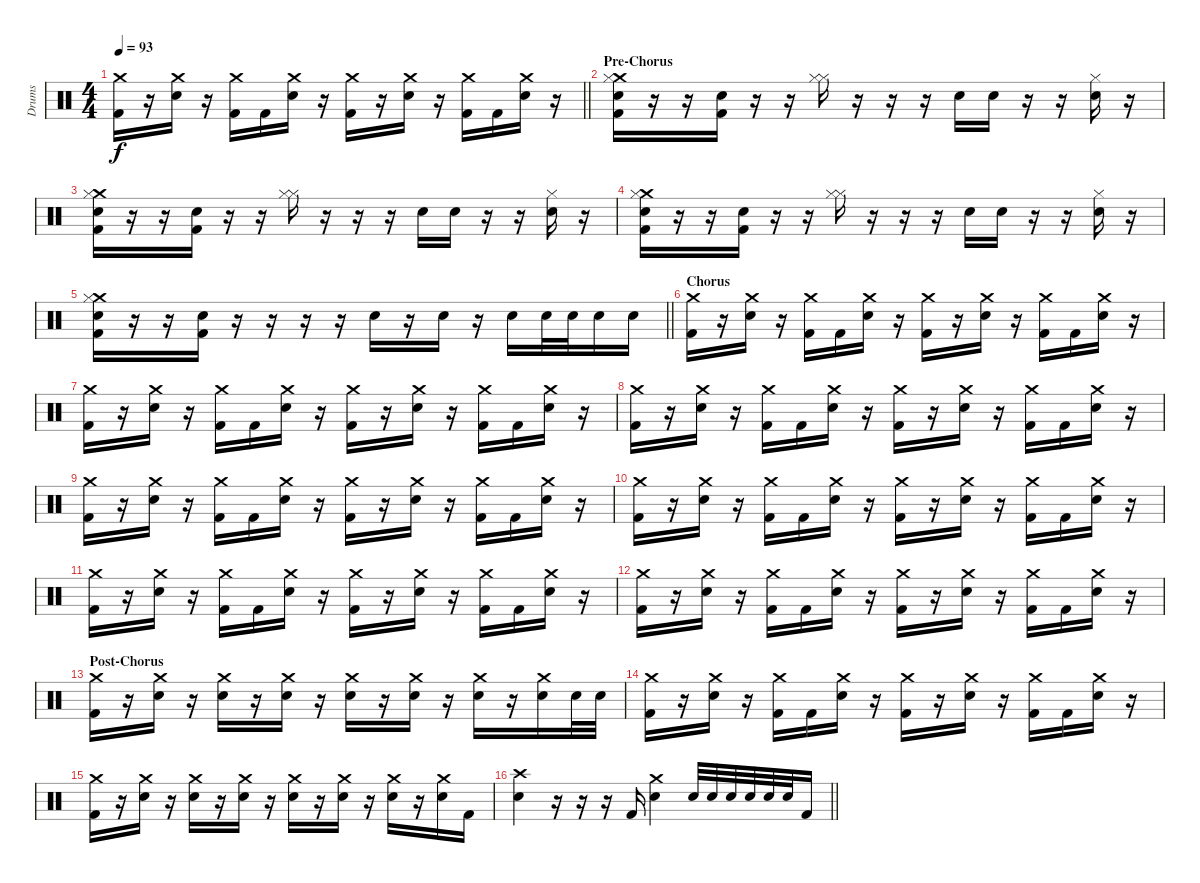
\track ("Drums" "Drums") {instrument percussion}
\staff {score}
\articulation defaults
\ts (4 4)
\tempo 93
\clef neutral
\barLineRight lightlight
\ks c
("Crash medium (hit)" "Kick (hit) 2").16{dy f} r.16 ("Crash medium (hit)" "Electric Snare (hit)").16 r.16 ("Crash medium (hit)" "Kick (hit) 2").16 "Kick (hit) 2".16 ("Crash medium (hit)" "Electric Snare (hit)").16 r.16 ("Crash medium (hit)" "Kick (hit) 2").16 r.16 ("Crash medium (hit)" "Electric Snare (hit)").16 r.16 ("Crash medium (hit)" "Kick (hit) 2").16 "Kick (hit) 2".16 ("Crash medium (hit)" "Electric Snare (hit)").16 r.16 |
\section ("" "Pre-Chorus")
("Crash medium (hit)" "Hi-Hat (closed)" "Electric Snare (hit)" "Kick (hit) 2").16 r.16 r.16 ("Electric Snare (hit)" "Kick (hit) 2").16 r.16 r.16 ("Hi-Hat (closed)" "Hi-Hat (closed)").16 r.16 r.16 r.16 "Hand Clap (hit)".16 "Hand Clap (hit)".16 r.16 r.16 ("Hi-Hat (closed)" "Hand Clap (hit)").16 r.16 |
("Crash medium (hit)" "Hi-Hat (closed)" "Electric Snare (hit)" "Kick (hit) 2").16 r.16 r.16 ("Electric Snare (hit)" "Kick (hit) 2").16 r.16 r.16 ("Hi-Hat (closed)" "Hi-Hat (closed)").16 r.16 r.16 r.16 "Hand Clap (hit)".16 "Hand Clap (hit)".16 r.16 r.16 ("Hi-Hat (closed)" "Hand Clap (hit)").16 r.16 |
("Crash medium (hit)" "Hi-Hat (closed)" "Electric Snare (hit)" "Kick (hit) 2").16 r.16 r.16 ("Electric Snare (hit)" "Kick (hit) 2").16 r.16 r.16 ("Hi-Hat (closed)" "Hi-Hat (closed)").16 r.16 r.16 r.16 "Hand Clap (hit)".16 "Hand Clap (hit)".16 r.16 r.16 ("Hi-Hat (closed)" "Hand Clap (hit)").16 r.16 |
\barLineRight lightlight
("Crash medium (hit)" "Hi-Hat (closed)" "Electric Snare (hit)" "Kick (hit) 2").16 r.16 r.16 ("Electric Snare (hit)" "Kick (hit) 2").16 r.16 r.16 r.16 r.16 "Electric Snare (hit)".16 r.16 "Electric Snare (hit)".16 r.16 "Electric Snare (hit)".16 "Electric Snare (hit)".32 "Electric Snare (hit)".32 "Electric Snare (hit)".16 "Electric Snare (hit)".16 |
\section ("" "Chorus")
("Crash medium (hit)" "Kick (hit) 2").16 r.16 ("Crash medium (hit)" "Electric Snare (hit)").16 r.16 ("Crash medium (hit)" "Kick (hit) 2").16 "Kick (hit) 2".16 ("Crash medium (hit)" "Electric Snare (hit)").16 r.16 ("Crash medium (hit)" "Kick (hit) 2").16 r.16 ("Crash medium (hit)" "Electric Snare (hit)").16 r.16 ("Crash medium (hit)" "Kick (hit) 2").16 "Kick (hit) 2".16 ("Crash medium (hit)" "Electric Snare (hit)").16 r.16 |
("Crash medium (hit)" "Kick (hit) 2").16 r.16 ("Crash medium (hit)" "Electric Snare (hit)").16 r.16 ("Crash medium (hit)" "Kick (hit) 2").16 "Kick (hit) 2".16 ("Crash medium (hit)" "Electric Snare (hit)").16 r.16 ("Crash medium (hit)" "Kick (hit) 2").16 r.16 ("Crash medium (hit)" "Electric Snare (hit)").16 r.16 ("Crash medium (hit)" "Kick (hit) 2").16 "Kick (hit) 2".16 ("Crash medium (hit)" "Electric Snare (hit)").16 r.16 |
("Crash medium (hit)" "Kick (hit) 2").16 r.16 ("Crash medium (hit)" "Electric Snare (hit)").16 r.16 ("Crash medium (hit)" "Kick (hit) 2").16 "Kick (hit) 2".16 ("Crash medium (hit)" "Electric Snare (hit)").16 r.16 ("Crash medium (hit)" "Kick (hit) 2").16 r.16 ("Crash medium (hit)" "Electric Snare (hit)").16 r.16 ("Crash medium (hit)" "Kick (hit) 2").16 "Kick (hit) 2".16 ("Crash medium (hit)" "Electric Snare (hit)").16 r.16 |
("Crash medium (hit)" "Kick (hit) 2").16 r.16 ("Crash medium (hit)" "Electric Snare (hit)").16 r.16 ("Crash medium (hit)" "Kick (hit) 2").16 "Kick (hit) 2".16 ("Crash medium (hit)" "Electric Snare (hit)").16 r.16 ("Crash medium (hit)" "Kick (hit) 2").16 r.16 ("Crash medium (hit)" "Electric Snare (hit)").16 r.16 ("Crash medium (hit)" "Kick (hit) 2").16 "Kick (hit) 2".16 ("Crash medium (hit)" "Electric Snare (hit)").16 r.16 |
("Crash medium (hit)" "Kick (hit) 2").16 r.16 ("Crash medium (hit)" "Electric Snare (hit)").16 r.16 ("Crash medium (hit)" "Kick (hit) 2").16 "Kick (hit) 2".16 ("Crash medium (hit)" "Electric Snare (hit)").16 r.16 ("Crash medium (hit)" "Kick (hit) 2").16 r.16 ("Crash medium (hit)" "Electric Snare (hit)").16 r.16 ("Crash medium (hit)" "Kick (hit) 2").16 "Kick (hit) 2".16 ("Crash medium (hit)" "Electric Snare (hit)").16 r.16 |
("Crash medium (hit)" "Kick (hit) 2").16 r.16 ("Crash medium (hit)" "Electric Snare (hit)").16 r.16 ("Crash medium (hit)" "Kick (hit) 2").16 "Kick (hit) 2".16 ("Crash medium (hit)" "Electric Snare (hit)").16 r.16 ("Crash medium (hit)" "Kick (hit) 2").16 r.16 ("Crash medium (hit)" "Electric Snare (hit)").16 r.16 ("Crash medium (hit)" "Kick (hit) 2").16 "Kick (hit) 2".16 ("Crash medium (hit)" "Electric Snare (hit)").16 r.16 |
("Crash medium (hit)" "Kick (hit) 2").16 r.16 ("Crash medium (hit)" "Electric Snare (hit)").16 r.16 ("Crash medium (hit)" "Kick (hit) 2").16 "Kick (hit) 2".16 ("Crash medium (hit)" "Electric Snare (hit)").16 r.16 ("Crash medium (hit)" "Kick (hit) 2").16 r.16 ("Crash medium (hit)" "Electric Snare (hit)").16 r.16 ("Crash medium (hit)" "Kick (hit) 2").16 "Kick (hit) 2".16 ("Crash medium (hit)" "Electric Snare (hit)").16 r.16 |
\section ("" "Post-Chorus")
("Crash medium (hit)" "Kick (hit) 2").16 r.16 ("Crash medium (hit)" "Electric Snare (hit)").16 r.16 ("Crash medium (hit)" "Electric Snare (hit)").16 r.16 ("Crash medium (hit)" "Electric Snare (hit)").16 r.16 ("Crash medium (hit)" "Electric Snare (hit)").16 r.16 ("Crash medium (hit)" "Electric Snare (hit)").16 r.16 ("Crash medium (hit)" "Electric Snare (hit)").16 r.16 ("Crash medium (hit)" "Electric Snare (hit)").16 "Electric Snare (hit)".32 "Electric Snare (hit)".32 |
("Crash medium (hit)" "Kick (hit) 2").16 r.16 ("Crash medium (hit)" "Electric Snare (hit)").16 r.16 ("Crash medium (hit)" "Kick (hit) 2").16 "Kick (hit) 2".16 ("Crash medium (hit)" "Electric Snare (hit)").16 r.16 ("Crash medium (hit)" "Kick (hit) 2").16 r.16 ("Crash medium (hit)" "Electric Snare (hit)").16 r.16 ("Crash medium (hit)" "Kick (hit) 2").16 "Kick (hit) 2".16 ("Crash medium (hit)" "Electric Snare (hit)").16 r.16 |
("Crash medium (hit)" "Kick (hit) 2").16 r.16 ("Crash medium (hit)" "Electric Snare (hit)").16 r.16 ("Crash medium (hit)" "Electric Snare (hit)").16 r.16 ("Crash medium (hit)" "Electric Snare (hit)").16 r.16 ("Crash medium (hit)" "Electric Snare (hit)").16 r.16 ("Crash medium (hit)" "Electric Snare (hit)").16 r.16 ("Crash medium (hit)" "Electric Snare (hit)").16 r.16 ("Crash medium (hit)" "Electric Snare (hit)").16 "Kick (hit) 2".16 |
\barLineRight lightlight
("Crash high (hit)" "Electric Snare (hit)").4 r.16 r.16 r.16 "Kick (hit) 2".16 ("Crash medium (hit)" "Electric Snare (hit)").4 "Electric Snare (hit)".32 "Electric Snare (hit)".32 "Electric Snare (hit)".32 "Electric Snare (hit)".32 "Electric Snare (hit)".32 "Electric Snare (hit)".32 "Kick (hit) 2".16
